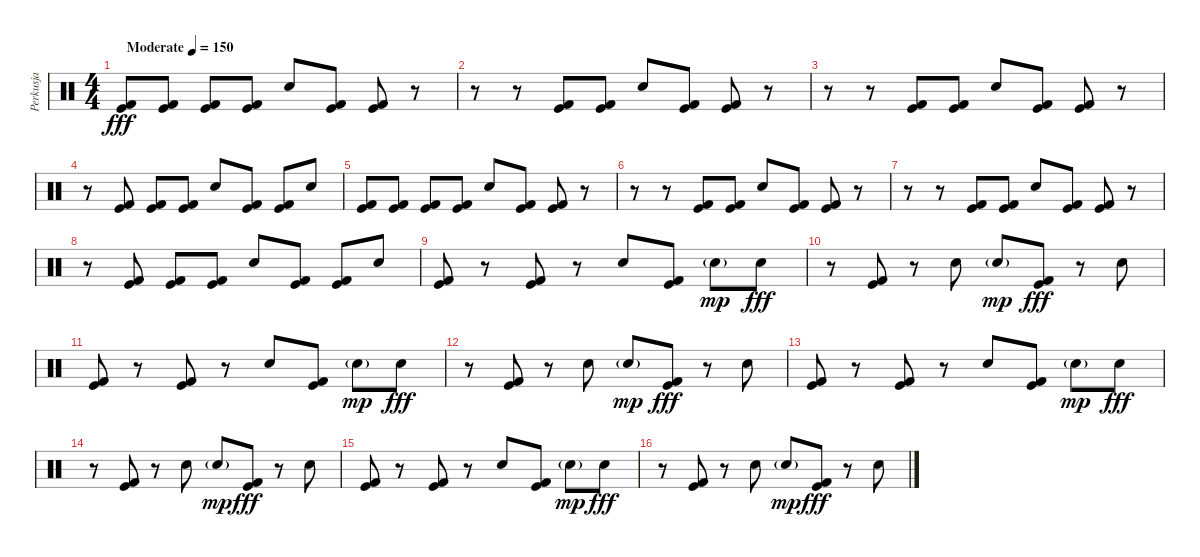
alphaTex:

\track ("Perkusja" "Perkusja") {instrument percussion}
\staff {score}
\articulation defaults
\ts (4 4)
\tempo (150 "Moderate")
\clef neutral
\ks c
("Kick (hit)" "Kick (hit) 2").8{dy fff} ("Kick (hit)" "Kick (hit) 2").8 ("Kick (hit)" "Kick (hit) 2").8 ("Kick (hit)" "Kick (hit) 2").8 "Electric Snare (hit)".8 ("Kick (hit)" "Kick (hit) 2").8 ("Kick (hit)" "Kick (hit) 2").8 r.8 |
r.8 r.8 ("Kick (hit)" "Kick (hit) 2").8 ("Kick (hit)" "Kick (hit) 2").8 "Electric Snare (hit)".8 ("Kick (hit)" "Kick (hit) 2").8 ("Kick (hit)" "Kick (hit) 2").8 r.8 |
r.8 r.8 ("Kick (hit)" "Kick (hit) 2").8 ("Kick (hit)" "Kick (hit) 2").8 "Electric Snare (hit)".8 ("Kick (hit)" "Kick (hit) 2").8 ("Kick (hit)" "Kick (hit) 2").8 r.8 |
r.8 ("Kick (hit)" "Kick (hit) 2").8 ("Kick (hit)" "Kick (hit) 2").8 ("Kick (hit)" "Kick (hit) 2").8 "Electric Snare (hit)".8 ("Kick (hit)" "Kick (hit) 2").8 ("Kick (hit)" "Kick (hit) 2").8 "Electric Snare (hit)".8 |
("Kick (hit)" "Kick (hit) 2").8 ("Kick (hit)" "Kick (hit) 2").8 ("Kick (hit)" "Kick (hit) 2").8 ("Kick (hit)" "Kick (hit) 2").8 "Electric Snare (hit)".8 ("Kick (hit)" "Kick (hit) 2").8 ("Kick (hit)" "Kick (hit) 2").8 r.8 |
r.8 r.8 ("Kick (hit)" "Kick (hit) 2").8 ("Kick (hit)" "Kick (hit) 2").8 "Electric Snare (hit)".8 ("Kick (hit)" "Kick (hit) 2").8 ("Kick (hit)" "Kick (hit) 2").8 r.8 |
r.8 r.8 ("Kick (hit)" "Kick (hit) 2").8 ("Kick (hit)" "Kick (hit) 2").8 "Electric Snare (hit)".8 ("Kick (hit)" "Kick (hit) 2").8 ("Kick (hit)" "Kick (hit) 2").8 r.8 |
r.8 ("Kick (hit)" "Kick (hit) 2").8 ("Kick (hit)" "Kick (hit) 2").8 ("Kick (hit)" "Kick (hit) 2").8 "Electric Snare (hit)".8 ("Kick (hit)" "Kick (hit) 2").8 ("Kick (hit)" "Kick (hit) 2").8 "Electric Snare (hit)".8 |
("Kick (hit)" "Kick (hit) 2").8 r.8 ("Kick (hit)" "Kick (hit) 2").8 r.8 "Electric Snare (hit)".8 ("Kick (hit)" "Kick (hit) 2").8 "Electric Snare (hit)"{g}.8{dy mp} "Electric Snare (hit)".8{dy fff} |
r.8 ("Kick (hit)" "Kick (hit) 2").8 r.8 "Electric Snare (hit)".8 "Electric Snare (hit)"{g}.8{dy mp} ("Kick (hit)" "Kick (hit) 2").8{dy fff} r.8 "Electric Snare (hit)".8 |
("Kick (hit)" "Kick (hit) 2").8 r.8 ("Kick (hit)" "Kick (hit) 2").8 r.8 "Electric Snare (hit)".8 ("Kick (hit)" "Kick (hit) 2").8 "Electric Snare (hit)"{g}.8{dy mp} "Electric Snare (hit)".8{dy fff} |
r.8 ("Kick (hit)" "Kick (hit) 2").8 r.8 "Electric Snare (hit)".8 "Electric Snare (hit)"{g}.8{dy mp} ("Kick (hit)" "Kick (hit) 2").8{dy fff} r.8 "Electric Snare (hit)".8 |
("Kick (hit)" "Kick (hit) 2").8 r.8 ("Kick (hit)" "Kick (hit) 2").8 r.8 "Electric Snare (hit)".8 ("Kick (hit)" "Kick (hit) 2").8 "Electric Snare (hit)"{g}.8{dy mp} "Electric Snare (hit)".8{dy fff} |
r.8 ("Kick (hit)" "Kick (hit) 2").8 r.8 "Electric Snare (hit)".8 "Electric Snare (hit)"{g}.8{dy mp} ("Kick (hit)" "Kick (hit) 2").8{dy fff} r.8 "Electric Snare (hit)".8 |
("Kick (hit)" "Kick (hit) 2").8 r.8 ("Kick (hit)" "Kick (hit) 2").8 r.8 "Electric Snare (hit)".8 ("Kick (hit)" "Kick (hit) 2").8 "Electric Snare (hit)"{g}.8{dy mp} "Electric Snare (hit)".8{dy fff} |
r.8 ("Kick (hit)" "Kick (hit) 2").8 r.8 "Electric Snare (hit)".8 "Electric Snare (hit)"{g}.8{dy mp} ("Kick (hit)" "Kick (hit) 2").8{dy fff} r.8 "Electric Snare (hit)".8
